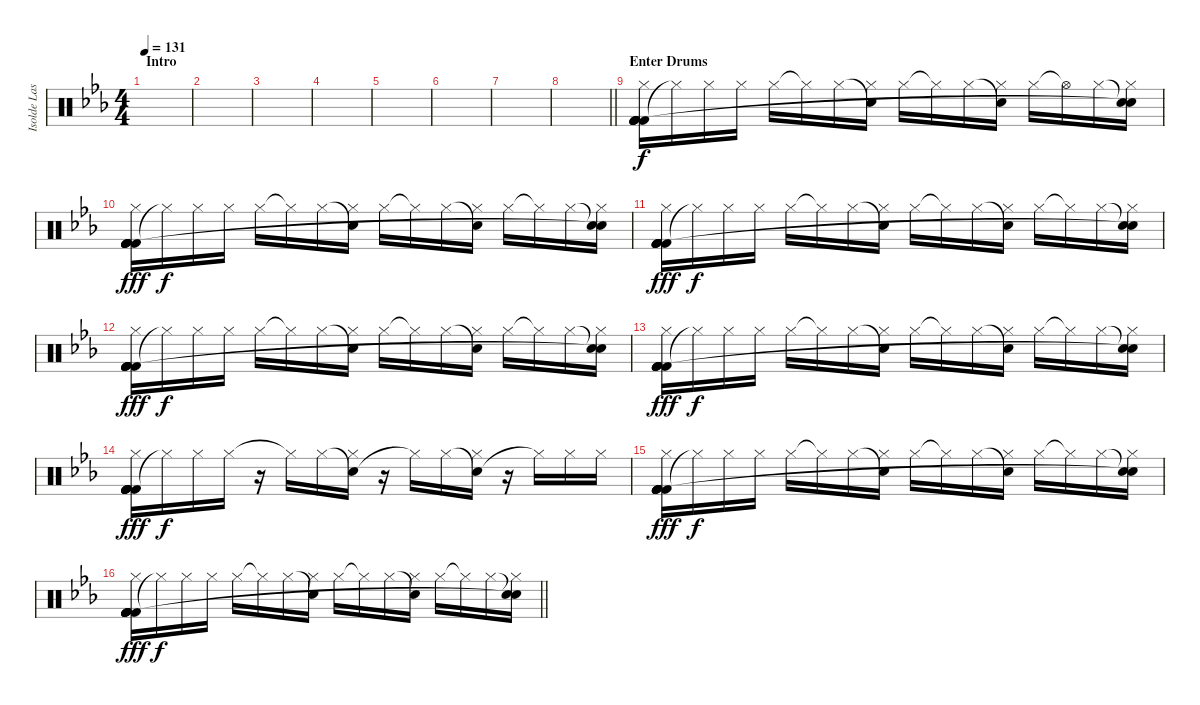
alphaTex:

\track ("Isolde Lasoen (Percussion)" "Isolde Las") {instrument percussion}
\staff {score}
\articulation defaults
\ts (4 4)
\section ("" "Intro")
\tempo 131
\clef neutral
\ks cminor
|
|
|
|
|
|
|
\barLineRight lightlight
|
\section ("" "Enter Drums")
("Kick (hit) 2" "Kick (hit) 2" "Kick (hit) 2" "Kick (hit) 2" "Hi-Hat (closed)" "Kick (hit) 2").16 "Hi-Hat (closed)"{t}.16{dy f} "Hi-Hat (closed)".16 "Hi-Hat (closed)".16 "Hi-Hat (closed)".16 "Hi-Hat (closed)"{t}.16 "Hi-Hat (closed)".16 ("Snare (hit)"{t} "Hi-Hat (closed)").16 "Hi-Hat (closed)".16 "Hi-Hat (closed)"{t}.16 "Hi-Hat (closed)".16 ("Snare (hit)"{t} "Hi-Hat (closed)").16 "Hi-Hat (closed)".16 "Hi-Hat (open)"{t}.16 "Hi-Hat (closed)".16 ("Snare (hit)"{t} "Hi-Hat (closed)" "Snare (hit)"{t}).16 |
("Kick (hit) 2" "Kick (hit) 2" "Kick (hit) 2" "Kick (hit) 2" "Hi-Hat (closed)" "Kick (hit) 2").16{dy fff} "Hi-Hat (closed)"{t}.16{dy f} "Hi-Hat (closed)".16 "Hi-Hat (closed)".16 "Hi-Hat (closed)".16 "Hi-Hat (closed)"{t}.16 "Hi-Hat (closed)".16 ("Snare (hit)"{t} "Hi-Hat (closed)").16 "Hi-Hat (closed)".16 "Hi-Hat (closed)"{t}.16 "Hi-Hat (closed)".16 ("Snare (hit)"{t} "Hi-Hat (closed)").16 "Hi-Hat (closed)".16 "Hi-Hat (closed)"{t}.16 "Hi-Hat (closed)".16 ("Snare (hit)"{t} "Hi-Hat (closed)" "Snare (hit)"{t}).16 |
("Kick (hit) 2" "Kick (hit) 2" "Kick (hit) 2" "Kick (hit) 2" "Hi-Hat (closed)" "Kick (hit) 2").16{dy fff} "Hi-Hat (closed)"{t}.16{dy f} "Hi-Hat (closed)".16 "Hi-Hat (closed)".16 "Hi-Hat (closed)".16 "Hi-Hat (closed)"{t}.16 "Hi-Hat (closed)".16 ("Snare (hit)"{t} "Hi-Hat (closed)").16 "Hi-Hat (closed)".16 "Hi-Hat (closed)"{t}.16 "Hi-Hat (closed)".16 ("Snare (hit)"{t} "Hi-Hat (closed)").16 "Hi-Hat (closed)".16 "Hi-Hat (closed)"{t}.16 "Hi-Hat (closed)".16 ("Snare (hit)"{t} "Hi-Hat (closed)" "Snare (hit)"{t}).16 |
("Kick (hit) 2" "Kick (hit) 2" "Kick (hit) 2" "Kick (hit) 2" "Hi-Hat (closed)" "Kick (hit) 2").16{dy fff} "Hi-Hat (closed)"{t}.16{dy f} "Hi-Hat (closed)".16 "Hi-Hat (closed)".16 "Hi-Hat (closed)".16 "Hi-Hat (closed)"{t}.16 "Hi-Hat (closed)".16 ("Snare (hit)"{t} "Hi-Hat (closed)").16 "Hi-Hat (closed)".16 "Hi-Hat (closed)"{t}.16 "Hi-Hat (closed)".16 ("Snare (hit)"{t} "Hi-Hat (closed)").16 "Hi-Hat (closed)".16 "Hi-Hat (closed)"{t}.16 "Hi-Hat (closed)".16 ("Snare (hit)"{t} "Hi-Hat (closed)" "Snare (hit)"{t}).16 |
("Kick (hit) 2" "Kick (hit) 2" "Kick (hit) 2" "Kick (hit) 2" "Hi-Hat (closed)" "Kick (hit) 2").16{dy fff} "Hi-Hat (closed)"{t}.16{dy f} "Hi-Hat (closed)".16 "Hi-Hat (closed)".16 "Hi-Hat (closed)".16 "Hi-Hat (closed)"{t}.16 "Hi-Hat (closed)".16 ("Snare (hit)"{t} "Hi-Hat (closed)").16 "Hi-Hat (closed)".16 "Hi-Hat (closed)"{t}.16 "Hi-Hat (closed)".16 ("Snare (hit)"{t} "Hi-Hat (closed)").16 "Hi-Hat (closed)".16 "Hi-Hat (closed)"{t}.16 "Hi-Hat (closed)".16 ("Snare (hit)"{t} "Hi-Hat (closed)" "Snare (hit)"{t}).16 |
("Kick (hit) 2" "Kick (hit) 2" "Kick (hit) 2" "Kick (hit) 2" "Hi-Hat (closed)" "Kick (hit) 2").16{dy fff} "Hi-Hat (closed)"{t}.16{dy f} "Hi-Hat (closed)".16 "Hi-Hat (closed)".16 r.16 "Hi-Hat (closed)"{t}.16 "Hi-Hat (closed)".16 ("Snare (hit)"{t} "Hi-Hat (closed)").16 r.16 "Hi-Hat (closed)"{t}.16 "Hi-Hat (closed)".16 ("Snare (hit)"{t} "Hi-Hat (closed)").16 r.16 "Hi-Hat (closed)"{t}.16 "Hi-Hat (closed)".16 "Hi-Hat (closed)".16 |
("Kick (hit) 2" "Kick (hit) 2" "Kick (hit) 2" "Kick (hit) 2" "Hi-Hat (closed)" "Kick (hit) 2").16{dy fff} "Hi-Hat (closed)"{t}.16{dy f} "Hi-Hat (closed)".16 "Hi-Hat (closed)".16 "Hi-Hat (closed)".16 "Hi-Hat (closed)"{t}.16 "Hi-Hat (closed)".16 ("Snare (hit)"{t} "Hi-Hat (closed)").16 "Hi-Hat (closed)".16 "Hi-Hat (closed)"{t}.16 "Hi-Hat (closed)".16 ("Snare (hit)"{t} "Hi-Hat (closed)").16 "Hi-Hat (closed)".16 "Hi-Hat (closed)"{t}.16 "Hi-Hat (closed)".16 ("Snare (hit)"{t} "Hi-Hat (closed)" "Snare (hit)"{t}).16 |
\barLineRight lightlight
("Kick (hit) 2" "Kick (hit) 2" "Kick (hit) 2" "Kick (hit) 2" "Hi-Hat (closed)" "Kick (hit) 2").16{dy fff} "Hi-Hat (closed)"{t}.16{dy f} "Hi-Hat (closed)".16 "Hi-Hat (closed)".16 "Hi-Hat (closed)".16 "Hi-Hat (closed)"{t}.16 "Hi-Hat (closed)".16 ("Snare (hit)"{t} "Hi-Hat (closed)").16 "Hi-Hat (closed)".16 "Hi-Hat (closed)"{t}.16 "Hi-Hat (closed)".16 ("Snare (hit)"{t} "Hi-Hat (closed)").16 "Hi-Hat (closed)".16 "Hi-Hat (closed)"{t}.16 "Hi-Hat (closed)".16 ("Snare (hit)"{t} "Hi-Hat (closed)" "Snare (hit)"{t}).16
